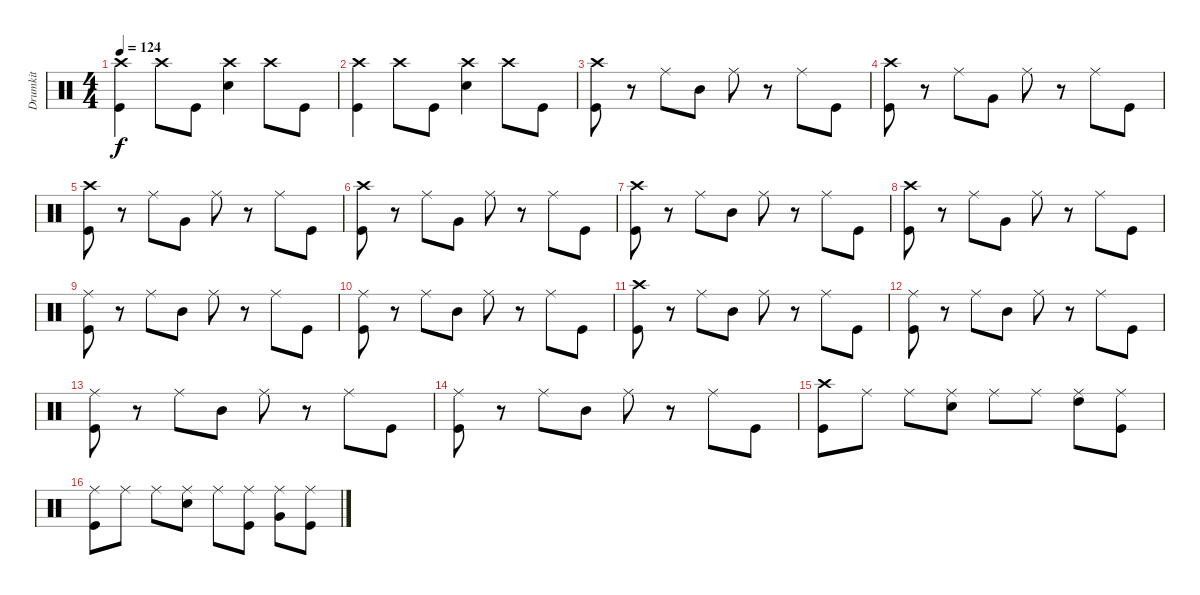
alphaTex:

\track ("Drumkit" "Drumkit") {instrument percussion}
\staff {score}
\articulation defaults
\ts (4 4)
\tempo 124
\clef neutral
\ks c
("Kick (hit)" "Crash high (hit)").4{dy f} "Crash high (hit)".8 "Kick (hit)".8 ("Snare (hit) 2" "Crash high (hit)").4 "Crash high (hit)".8 "Kick (hit)".8 |
("Kick (hit)" "Crash high (hit)").4 "Crash high (hit)".8 "Kick (hit)".8 ("Snare (hit) 2" "Crash high (hit)").4 "Crash high (hit)".8 "Kick (hit)".8 |
("Kick (hit)" "Crash high (hit)").8 r.8 "Ride (middle)".8 "Mid Tom (hit)".8 "Ride (middle)".8 r.8 "Ride (middle)".8 "Kick (hit)".8 |
("Kick (hit)" "Crash high (hit)").8 r.8 "Ride (middle)".8 "Very Low Tom (hit)".8 "Ride (middle)".8 r.8 "Ride (middle)".8 "Kick (hit)".8 |
("Kick (hit)" "Crash high (hit)").8 r.8 "Ride (middle)".8 "Very Low Tom (hit)".8 "Ride (middle)".8 r.8 "Ride (middle)".8 "Kick (hit)".8 |
("Kick (hit)" "Crash high (hit)").8 r.8 "Ride (middle)".8 "Very Low Tom (hit)".8 "Ride (middle)".8 r.8 "Ride (middle)".8 "Kick (hit)".8 |
("Kick (hit)" "Crash high (hit)").8 r.8 "Ride (middle)".8 "Mid Tom (hit)".8 "Ride (middle)".8 r.8 "Ride (middle)".8 "Kick (hit)".8 |
("Kick (hit)" "Crash high (hit)").8 r.8 "Ride (middle)".8 "Very Low Tom (hit)".8 "Ride (middle)".8 r.8 "Ride (middle)".8 "Kick (hit)".8 |
("Kick (hit)" "Ride (middle)").8 r.8 "Ride (middle)".8 "Mid Tom (hit)".8 "Ride (middle)".8 r.8 "Ride (middle)".8 "Kick (hit)".8 |
("Kick (hit)" "Ride (middle)").8 r.8 "Ride (middle)".8 "Mid Tom (hit)".8 "Ride (middle)".8 r.8 "Ride (middle)".8 "Kick (hit)".8 |
("Kick (hit)" "Crash high (hit)").8 r.8 "Ride (middle)".8 "Mid Tom (hit)".8 "Ride (middle)".8 r.8 "Ride (middle)".8 "Kick (hit)".8 |
("Kick (hit)" "Ride (middle)").8 r.8 "Ride (middle)".8 "Mid Tom (hit)".8 "Ride (middle)".8 r.8 "Ride (middle)".8 "Kick (hit)".8 |
("Kick (hit)" "Ride (middle)").8 r.8 "Ride (middle)".8 "Mid Tom (hit)".8 "Ride (middle)".8 r.8 "Ride (middle)".8 "Kick (hit)".8 |
("Kick (hit)" "Ride (middle)").8 r.8 "Ride (middle)".8 "Mid Tom (hit)".8 "Ride (middle)".8 r.8 "Ride (middle)".8 "Kick (hit)".8 |
("Kick (hit)" "Crash high (hit)").8 "Ride (middle)".8 "Ride (middle)".8 ("Snare (hit) 2" "Ride (middle)").8 "Ride (middle)".8 "Ride (middle)".8 ("Ride (middle)" "High Tom (hit)").8 ("Kick (hit)" "Ride (middle)").8 |
("Kick (hit)" "Ride (middle)").8 "Ride (middle)".8 "Ride (middle)".8 ("Snare (hit) 2" "Ride (middle)").8 "Ride (middle)".8 ("Ride (middle)" "Kick (hit)").8 ("Ride (middle)" "Very Low Tom (hit)").8 ("Kick (hit)" "Ride (middle)").8
